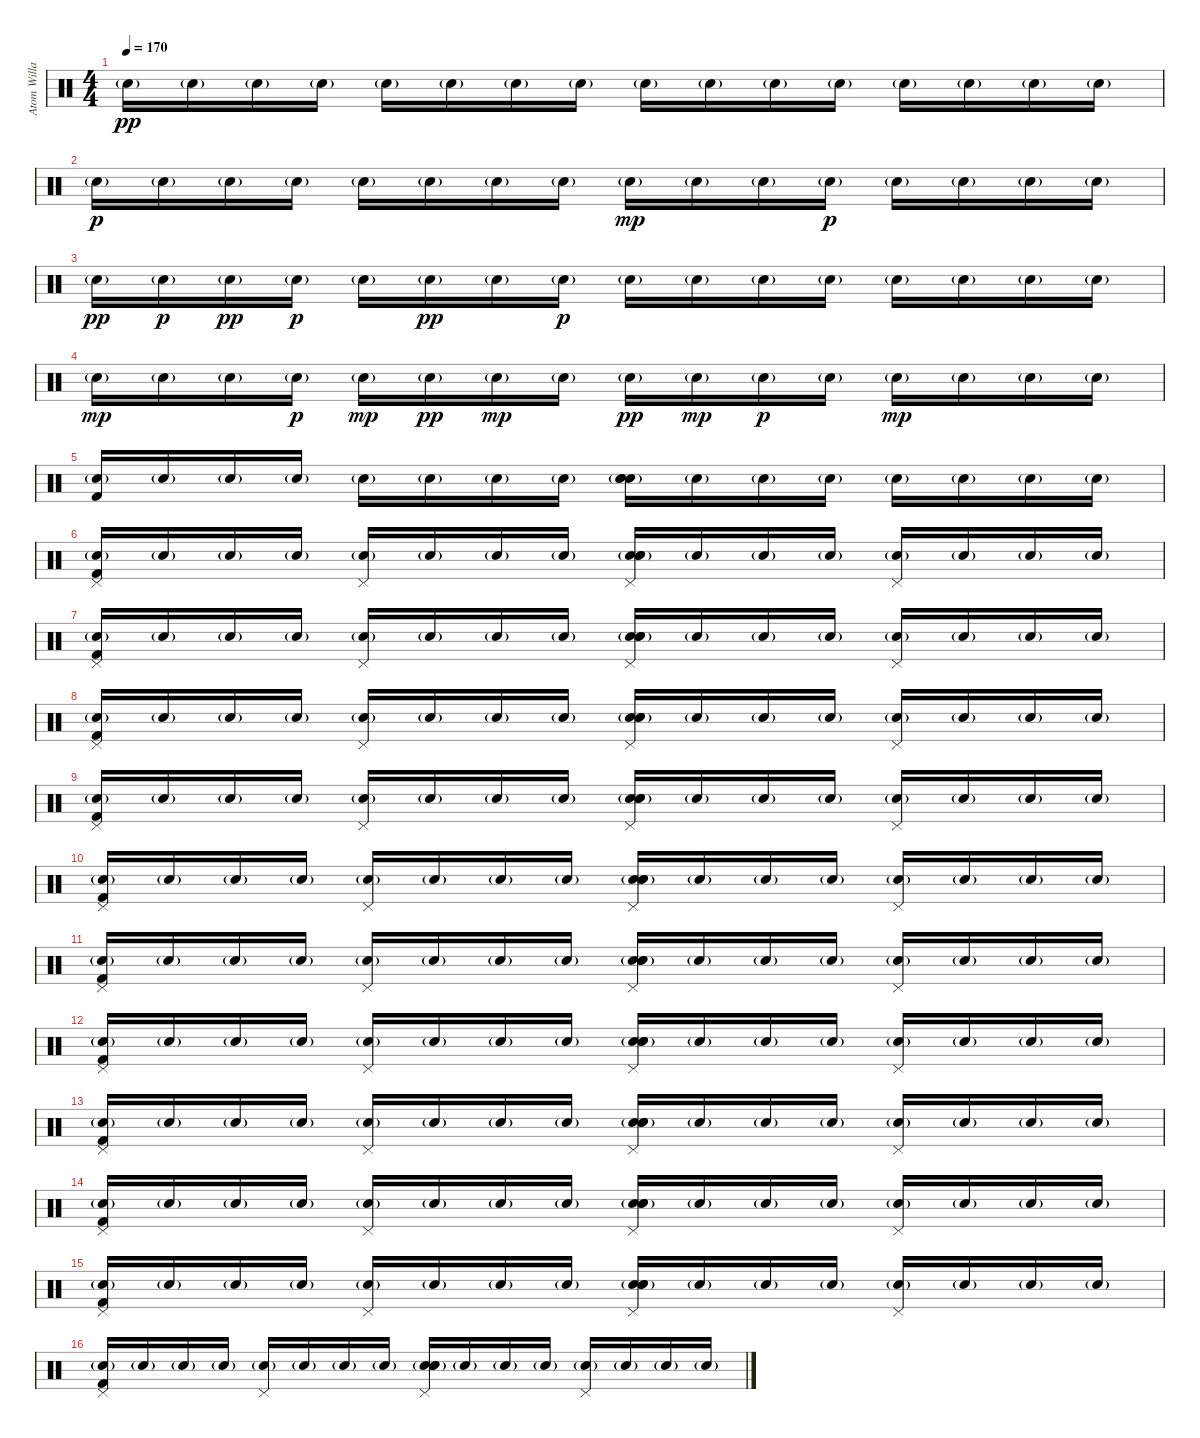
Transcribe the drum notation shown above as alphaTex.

\track ("Atom Willard" "Atom Willa") {instrument percussion}
\staff {score}
\articulation defaults
\ts (4 4)
\tempo 170
\clef neutral
\ks c "Electric Snare (hit)"{g}.16{dy pp} "Electric Snare (hit)"{g}.16 "Electric Snare (hit)"{g}.16 "Electric Snare (hit)"{g}.16 "Electric Snare (hit)"{g}.16 "Electric Snare (hit)"{g}.16 "Electric Snare (hit)"{g}.16 "Electric Snare (hit)"{g}.16 "Electric Snare (hit)"{g}.16 "Electric Snare (hit)"{g}.16 "Electric Snare (hit)"{g}.16 "Electric Snare (hit)"{g}.16 "Electric Snare (hit)"{g}.16 "Electric Snare (hit)"{g}.16 "Electric Snare (hit)"{g}.16 "Electric Snare (hit)"{g}.16
|
"Electric Snare (hit)"{g}.16{dy p} "Electric Snare (hit)"{g}.16 "Electric Snare (hit)"{g}.16 "Electric Snare (hit)"{g}.16 "Electric Snare (hit)"{g}.16 "Electric Snare (hit)"{g}.16 "Electric Snare (hit)"{g}.16 "Electric Snare (hit)"{g}.16 "Electric Snare (hit)"{g}.16{dy mp} "Electric Snare (hit)"{g}.16 "Electric Snare (hit)"{g}.16 "Electric Snare (hit)"{g}.16{dy p} "Electric Snare (hit)"{g}.16 "Electric Snare (hit)"{g}.16 "Electric Snare (hit)"{g}.16 "Electric Snare (hit)"{g}.16 |
"Electric Snare (hit)"{g}.16{dy pp} "Electric Snare (hit)"{g}.16{dy p} "Electric Snare (hit)"{g}.16{dy pp} "Electric Snare (hit)"{g}.16{dy p} "Electric Snare (hit)"{g}.16 "Electric Snare (hit)"{g}.16{dy pp} "Electric Snare (hit)"{g}.16 "Electric Snare (hit)"{g}.16{dy p} "Electric Snare (hit)"{g}.16 "Electric Snare (hit)"{g}.16 "Electric Snare (hit)"{g}.16 "Electric Snare (hit)"{g}.16 "Electric Snare (hit)"{g}.16 "Electric Snare (hit)"{g}.16 "Electric Snare (hit)"{g}.16 "Electric Snare (hit)"{g}.16 |
"Electric Snare (hit)"{g}.16{dy mp} "Electric Snare (hit)"{g}.16 "Electric Snare (hit)"{g}.16 "Electric Snare (hit)"{g}.16{dy p} "Electric Snare (hit)"{g}.16{dy mp} "Electric Snare (hit)"{g}.16{dy pp} "Electric Snare (hit)"{g}.16{dy mp} "Electric Snare (hit)"{g}.16 "Electric Snare (hit)"{g}.16{dy pp} "Electric Snare (hit)"{g}.16{dy mp} "Electric Snare (hit)"{g}.16{dy p} "Electric Snare (hit)"{g}.16 "Electric Snare (hit)"{g}.16{dy mp} "Electric Snare (hit)"{g}.16 "Electric Snare (hit)"{g}.16 "Electric Snare (hit)"{g}.16 |
("Electric Snare (hit)"{g} "Kick (hit) 2").16{volume 6} "Electric Snare (hit)"{g}.16 "Electric Snare (hit)"{g}.16 "Electric Snare (hit)"{g}.16 "Electric Snare (hit)"{g}.16 "Electric Snare (hit)"{g}.16 "Electric Snare (hit)"{g}.16 "Electric Snare (hit)"{g}.16 ("Electric Snare (hit)"{g} "Electric Snare (hit)" "Snare (hit) 2").16 "Electric Snare (hit)"{g}.16 "Electric Snare (hit)"{g}.16 "Electric Snare (hit)"{g}.16 "Electric Snare (hit)"{g}.16 "Electric Snare (hit)"{g}.16 "Electric Snare (hit)"{g}.16 "Electric Snare (hit)"{g}.16 |
("Pedal Hi-Hat (hit)" "Electric Snare (hit)"{g} "Kick (hit) 2").16{volume 6} "Electric Snare (hit)"{g}.16 "Electric Snare (hit)"{g}.16 "Electric Snare (hit)"{g}.16 ("Pedal Hi-Hat (hit)" "Electric Snare (hit)"{g}).16 "Electric Snare (hit)"{g}.16 "Electric Snare (hit)"{g}.16 "Electric Snare (hit)"{g}.16 ("Pedal Hi-Hat (hit)" "Electric Snare (hit)"{g} "Electric Snare (hit)" "Snare (hit) 2").16 "Electric Snare (hit)"{g}.16 "Electric Snare (hit)"{g}.16 "Electric Snare (hit)"{g}.16 ("Pedal Hi-Hat (hit)" "Electric Snare (hit)"{g}).16 "Electric Snare (hit)"{g}.16 "Electric Snare (hit)"{g}.16 "Electric Snare (hit)"{g}.16 |
("Pedal Hi-Hat (hit)" "Electric Snare (hit)"{g} "Kick (hit) 2").16{volume 6} "Electric Snare (hit)"{g}.16 "Electric Snare (hit)"{g}.16 "Electric Snare (hit)"{g}.16 ("Pedal Hi-Hat (hit)" "Electric Snare (hit)"{g}).16 "Electric Snare (hit)"{g}.16 "Electric Snare (hit)"{g}.16 "Electric Snare (hit)"{g}.16 ("Pedal Hi-Hat (hit)" "Electric Snare (hit)"{g} "Electric Snare (hit)" "Snare (hit) 2").16 "Electric Snare (hit)"{g}.16 "Electric Snare (hit)"{g}.16 "Electric Snare (hit)"{g}.16 ("Pedal Hi-Hat (hit)" "Electric Snare (hit)"{g}).16 "Electric Snare (hit)"{g}.16 "Electric Snare (hit)"{g}.16 "Electric Snare (hit)"{g}.16 |
("Pedal Hi-Hat (hit)" "Electric Snare (hit)"{g} "Kick (hit) 2").16{volume 6} "Electric Snare (hit)"{g}.16 "Electric Snare (hit)"{g}.16 "Electric Snare (hit)"{g}.16 ("Pedal Hi-Hat (hit)" "Electric Snare (hit)"{g}).16 "Electric Snare (hit)"{g}.16 "Electric Snare (hit)"{g}.16 "Electric Snare (hit)"{g}.16 ("Pedal Hi-Hat (hit)" "Electric Snare (hit)"{g} "Electric Snare (hit)" "Snare (hit) 2").16 "Electric Snare (hit)"{g}.16 "Electric Snare (hit)"{g}.16 "Electric Snare (hit)"{g}.16 ("Pedal Hi-Hat (hit)" "Electric Snare (hit)"{g}).16 "Electric Snare (hit)"{g}.16 "Electric Snare (hit)"{g}.16 "Electric Snare (hit)"{g}.16 |
("Pedal Hi-Hat (hit)" "Electric Snare (hit)"{g} "Kick (hit) 2").16{volume 6} "Electric Snare (hit)"{g}.16 "Electric Snare (hit)"{g}.16 "Electric Snare (hit)"{g}.16 ("Pedal Hi-Hat (hit)" "Electric Snare (hit)"{g}).16 "Electric Snare (hit)"{g}.16 "Electric Snare (hit)"{g}.16 "Electric Snare (hit)"{g}.16 ("Pedal Hi-Hat (hit)" "Electric Snare (hit)"{g} "Electric Snare (hit)" "Snare (hit) 2").16 "Electric Snare (hit)"{g}.16 "Electric Snare (hit)"{g}.16 "Electric Snare (hit)"{g}.16 ("Pedal Hi-Hat (hit)" "Electric Snare (hit)"{g}).16 "Electric Snare (hit)"{g}.16 "Electric Snare (hit)"{g}.16 "Electric Snare (hit)"{g}.16 |
("Pedal Hi-Hat (hit)" "Electric Snare (hit)"{g} "Kick (hit) 2").16{volume 6} "Electric Snare (hit)"{g}.16 "Electric Snare (hit)"{g}.16 "Electric Snare (hit)"{g}.16 ("Pedal Hi-Hat (hit)" "Electric Snare (hit)"{g}).16 "Electric Snare (hit)"{g}.16 "Electric Snare (hit)"{g}.16 "Electric Snare (hit)"{g}.16 ("Pedal Hi-Hat (hit)" "Electric Snare (hit)"{g} "Electric Snare (hit)" "Snare (hit) 2").16 "Electric Snare (hit)"{g}.16 "Electric Snare (hit)"{g}.16 "Electric Snare (hit)"{g}.16 ("Pedal Hi-Hat (hit)" "Electric Snare (hit)"{g}).16 "Electric Snare (hit)"{g}.16 "Electric Snare (hit)"{g}.16 "Electric Snare (hit)"{g}.16 |
("Pedal Hi-Hat (hit)" "Electric Snare (hit)"{g} "Kick (hit) 2").16{volume 6} "Electric Snare (hit)"{g}.16 "Electric Snare (hit)"{g}.16 "Electric Snare (hit)"{g}.16 ("Pedal Hi-Hat (hit)" "Electric Snare (hit)"{g}).16 "Electric Snare (hit)"{g}.16 "Electric Snare (hit)"{g}.16 "Electric Snare (hit)"{g}.16 ("Pedal Hi-Hat (hit)" "Electric Snare (hit)"{g} "Electric Snare (hit)" "Snare (hit) 2").16 "Electric Snare (hit)"{g}.16 "Electric Snare (hit)"{g}.16 "Electric Snare (hit)"{g}.16 ("Pedal Hi-Hat (hit)" "Electric Snare (hit)"{g}).16 "Electric Snare (hit)"{g}.16 "Electric Snare (hit)"{g}.16 "Electric Snare (hit)"{g}.16 |
("Pedal Hi-Hat (hit)" "Electric Snare (hit)"{g} "Kick (hit) 2").16{volume 6} "Electric Snare (hit)"{g}.16 "Electric Snare (hit)"{g}.16 "Electric Snare (hit)"{g}.16 ("Pedal Hi-Hat (hit)" "Electric Snare (hit)"{g}).16 "Electric Snare (hit)"{g}.16 "Electric Snare (hit)"{g}.16 "Electric Snare (hit)"{g}.16 ("Pedal Hi-Hat (hit)" "Electric Snare (hit)"{g} "Electric Snare (hit)" "Snare (hit) 2").16 "Electric Snare (hit)"{g}.16 "Electric Snare (hit)"{g}.16 "Electric Snare (hit)"{g}.16 ("Pedal Hi-Hat (hit)" "Electric Snare (hit)"{g}).16 "Electric Snare (hit)"{g}.16 "Electric Snare (hit)"{g}.16 "Electric Snare (hit)"{g}.16 |
("Pedal Hi-Hat (hit)" "Electric Snare (hit)"{g} "Kick (hit) 2").16{volume 6} "Electric Snare (hit)"{g}.16 "Electric Snare (hit)"{g}.16 "Electric Snare (hit)"{g}.16 ("Pedal Hi-Hat (hit)" "Electric Snare (hit)"{g}).16 "Electric Snare (hit)"{g}.16 "Electric Snare (hit)"{g}.16 "Electric Snare (hit)"{g}.16 ("Pedal Hi-Hat (hit)" "Electric Snare (hit)"{g} "Electric Snare (hit)" "Snare (hit) 2").16 "Electric Snare (hit)"{g}.16 "Electric Snare (hit)"{g}.16 "Electric Snare (hit)"{g}.16 ("Pedal Hi-Hat (hit)" "Electric Snare (hit)"{g}).16 "Electric Snare (hit)"{g}.16 "Electric Snare (hit)"{g}.16 "Electric Snare (hit)"{g}.16 |
("Pedal Hi-Hat (hit)" "Electric Snare (hit)"{g} "Kick (hit) 2").16{volume 6} "Electric Snare (hit)"{g}.16 "Electric Snare (hit)"{g}.16 "Electric Snare (hit)"{g}.16 ("Pedal Hi-Hat (hit)" "Electric Snare (hit)"{g}).16 "Electric Snare (hit)"{g}.16 "Electric Snare (hit)"{g}.16 "Electric Snare (hit)"{g}.16 ("Pedal Hi-Hat (hit)" "Electric Snare (hit)"{g} "Electric Snare (hit)" "Snare (hit) 2").16 "Electric Snare (hit)"{g}.16 "Electric Snare (hit)"{g}.16 "Electric Snare (hit)"{g}.16 ("Pedal Hi-Hat (hit)" "Electric Snare (hit)"{g}).16 "Electric Snare (hit)"{g}.16 "Electric Snare (hit)"{g}.16 "Electric Snare (hit)"{g}.16 |
("Pedal Hi-Hat (hit)" "Electric Snare (hit)"{g} "Kick (hit) 2").16{volume 6} "Electric Snare (hit)"{g}.16 "Electric Snare (hit)"{g}.16 "Electric Snare (hit)"{g}.16 ("Pedal Hi-Hat (hit)" "Electric Snare (hit)"{g}).16 "Electric Snare (hit)"{g}.16 "Electric Snare (hit)"{g}.16 "Electric Snare (hit)"{g}.16 ("Pedal Hi-Hat (hit)" "Electric Snare (hit)"{g} "Electric Snare (hit)" "Snare (hit) 2").16 "Electric Snare (hit)"{g}.16 "Electric Snare (hit)"{g}.16 "Electric Snare (hit)"{g}.16 ("Pedal Hi-Hat (hit)" "Electric Snare (hit)"{g}).16 "Electric Snare (hit)"{g}.16 "Electric Snare (hit)"{g}.16 "Electric Snare (hit)"{g}.16 |
("Pedal Hi-Hat (hit)" "Electric Snare (hit)"{g} "Kick (hit) 2").16{volume 13} "Electric Snare (hit)"{g}.16 "Electric Snare (hit)"{g}.16 "Electric Snare (hit)"{g}.16 ("Pedal Hi-Hat (hit)" "Electric Snare (hit)"{g}).16 "Electric Snare (hit)"{g}.16 "Electric Snare (hit)"{g}.16 "Electric Snare (hit)"{g}.16 ("Pedal Hi-Hat (hit)" "Electric Snare (hit)"{g} "Electric Snare (hit)" "Snare (hit) 2").16 "Electric Snare (hit)"{g}.16 "Electric Snare (hit)"{g}.16 "Electric Snare (hit)"{g}.16 ("Pedal Hi-Hat (hit)" "Electric Snare (hit)"{g}).16 "Electric Snare (hit)"{g}.16 "Electric Snare (hit)"{g}.16 "Electric Snare (hit)"{g}.16
